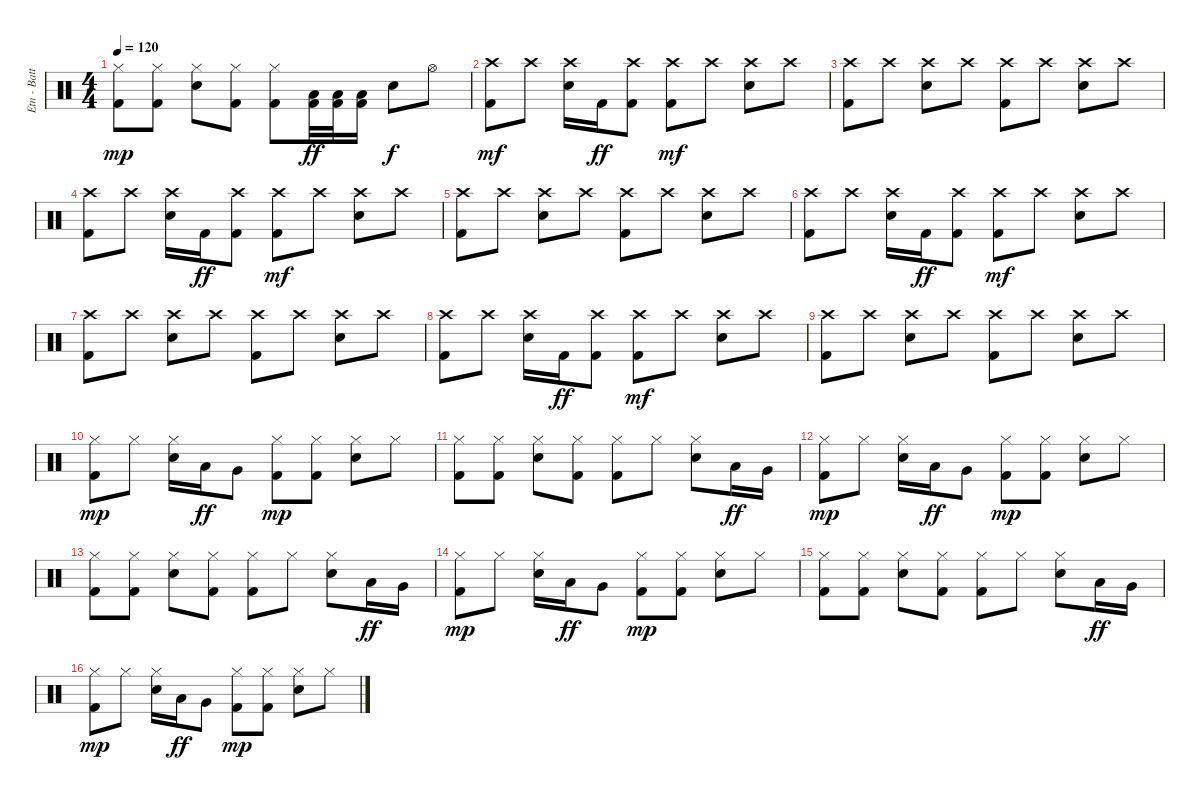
\track ("Etn - Batterie" "Etn - Batt") {instrument percussion}
\staff {score}
\articulation defaults
\ts (4 4)
\tempo 120
\clef neutral
\ks c
("Hi-Hat (closed)" "Kick (hit) 2").8{dy mp} ("Hi-Hat (closed)" "Kick (hit) 2").8 ("Hi-Hat (closed)" "Electric Snare (hit)").8 ("Hi-Hat (closed)" "Kick (hit) 2").8 ("Hi-Hat (closed)" "Kick (hit) 2").8 ("Low Tom (hit)" "Kick (hit) 2").32{dy ff} ("Low Floor Tom (hit)" "Kick (hit) 2").32 ("Low Tom (hit)" "Kick (hit) 2").16 "Electric Snare (hit)".8{dy f} "Hi-Hat (open)".8 |
("Crash high (hit)" "Kick (hit) 2").8{dy mf} "Crash high (hit)".8 ("Crash high (hit)" "Electric Snare (hit)").16 "Kick (hit) 2".16{dy ff} ("Crash high (hit)" "Kick (hit) 2").8 ("Crash high (hit)" "Kick (hit) 2").8{dy mf} "Crash high (hit)".8 ("Crash high (hit)" "Electric Snare (hit)").8 "Crash high (hit)".8 |
("Crash high (hit)" "Kick (hit) 2").8 "Crash high (hit)".8 ("Crash high (hit)" "Electric Snare (hit)").8 "Crash high (hit)".8 ("Crash high (hit)" "Kick (hit) 2").8 "Crash high (hit)".8 ("Crash high (hit)" "Electric Snare (hit)").8 "Crash high (hit)".8 |
("Crash high (hit)" "Kick (hit) 2").8 "Crash high (hit)".8 ("Crash high (hit)" "Electric Snare (hit)").16 "Kick (hit) 2".16{dy ff} ("Crash high (hit)" "Kick (hit) 2").8 ("Crash high (hit)" "Kick (hit) 2").8{dy mf} "Crash high (hit)".8 ("Crash high (hit)" "Electric Snare (hit)").8 "Crash high (hit)".8 |
("Crash high (hit)" "Kick (hit) 2").8 "Crash high (hit)".8 ("Crash high (hit)" "Electric Snare (hit)").8 "Crash high (hit)".8 ("Crash high (hit)" "Kick (hit) 2").8 "Crash high (hit)".8 ("Crash high (hit)" "Electric Snare (hit)").8 "Crash high (hit)".8 |
("Crash high (hit)" "Kick (hit) 2").8 "Crash high (hit)".8 ("Crash high (hit)" "Electric Snare (hit)").16 "Kick (hit) 2".16{dy ff} ("Crash high (hit)" "Kick (hit) 2").8 ("Crash high (hit)" "Kick (hit) 2").8{dy mf} "Crash high (hit)".8 ("Crash high (hit)" "Electric Snare (hit)").8 "Crash high (hit)".8 |
("Crash high (hit)" "Kick (hit) 2").8 "Crash high (hit)".8 ("Crash high (hit)" "Electric Snare (hit)").8 "Crash high (hit)".8 ("Crash high (hit)" "Kick (hit) 2").8 "Crash high (hit)".8 ("Crash high (hit)" "Electric Snare (hit)").8 "Crash high (hit)".8 |
("Crash high (hit)" "Kick (hit) 2").8 "Crash high (hit)".8 ("Crash high (hit)" "Electric Snare (hit)").16 "Kick (hit) 2".16{dy ff} ("Crash high (hit)" "Kick (hit) 2").8 ("Crash high (hit)" "Kick (hit) 2").8{dy mf} "Crash high (hit)".8 ("Crash high (hit)" "Electric Snare (hit)").8 "Crash high (hit)".8 |
("Crash high (hit)" "Kick (hit) 2").8 "Crash high (hit)".8 ("Crash high (hit)" "Electric Snare (hit)").8 "Crash high (hit)".8 ("Crash high (hit)" "Kick (hit) 2").8 "Crash high (hit)".8 ("Crash high (hit)" "Electric Snare (hit)").8 "Crash high (hit)".8 |
("Hi-Hat (closed)" "Kick (hit) 2").8{dy mp} "Hi-Hat (closed)".8 ("Hi-Hat (closed)" "Electric Snare (hit)").16 "Low Tom (hit)".16{dy ff} "Very Low Tom (hit)".8 ("Hi-Hat (closed)" "Kick (hit) 2").8{dy mp} ("Hi-Hat (closed)" "Kick (hit) 2").8 ("Hi-Hat (closed)" "Electric Snare (hit)").8 "Hi-Hat (closed)".8 |
("Hi-Hat (closed)" "Kick (hit) 2").8 ("Hi-Hat (closed)" "Kick (hit) 2").8 ("Hi-Hat (closed)" "Electric Snare (hit)").8 ("Hi-Hat (closed)" "Kick (hit) 2").8 ("Hi-Hat (closed)" "Kick (hit) 2").8 "Hi-Hat (closed)".8 ("Hi-Hat (closed)" "Electric Snare (hit)").8 "Low Tom (hit)".16{dy ff} "Very Low Tom (hit)".16 |
("Hi-Hat (closed)" "Kick (hit) 2").8{dy mp} "Hi-Hat (closed)".8 ("Hi-Hat (closed)" "Electric Snare (hit)").16 "Low Tom (hit)".16{dy ff} "Very Low Tom (hit)".8 ("Hi-Hat (closed)" "Kick (hit) 2").8{dy mp} ("Hi-Hat (closed)" "Kick (hit) 2").8 ("Hi-Hat (closed)" "Electric Snare (hit)").8 "Hi-Hat (closed)".8 |
("Hi-Hat (closed)" "Kick (hit) 2").8 ("Hi-Hat (closed)" "Kick (hit) 2").8 ("Hi-Hat (closed)" "Electric Snare (hit)").8 ("Hi-Hat (closed)" "Kick (hit) 2").8 ("Hi-Hat (closed)" "Kick (hit) 2").8 "Hi-Hat (closed)".8 ("Hi-Hat (closed)" "Electric Snare (hit)").8 "Low Tom (hit)".16{dy ff} "Very Low Tom (hit)".16 |
("Hi-Hat (closed)" "Kick (hit) 2").8{dy mp} "Hi-Hat (closed)".8 ("Hi-Hat (closed)" "Electric Snare (hit)").16 "Low Tom (hit)".16{dy ff} "Very Low Tom (hit)".8 ("Hi-Hat (closed)" "Kick (hit) 2").8{dy mp} ("Hi-Hat (closed)" "Kick (hit) 2").8 ("Hi-Hat (closed)" "Electric Snare (hit)").8 "Hi-Hat (closed)".8 |
("Hi-Hat (closed)" "Kick (hit) 2").8 ("Hi-Hat (closed)" "Kick (hit) 2").8 ("Hi-Hat (closed)" "Electric Snare (hit)").8 ("Hi-Hat (closed)" "Kick (hit) 2").8 ("Hi-Hat (closed)" "Kick (hit) 2").8 "Hi-Hat (closed)".8 ("Hi-Hat (closed)" "Electric Snare (hit)").8 "Low Tom (hit)".16{dy ff} "Very Low Tom (hit)".16 |
("Hi-Hat (closed)" "Kick (hit) 2").8{dy mp} "Hi-Hat (closed)".8 ("Hi-Hat (closed)" "Electric Snare (hit)").16 "Low Tom (hit)".16{dy ff} "Very Low Tom (hit)".8 ("Hi-Hat (closed)" "Kick (hit) 2").8{dy mp} ("Hi-Hat (closed)" "Kick (hit) 2").8 ("Hi-Hat (closed)" "Electric Snare (hit)").8 "Hi-Hat (closed)".8
